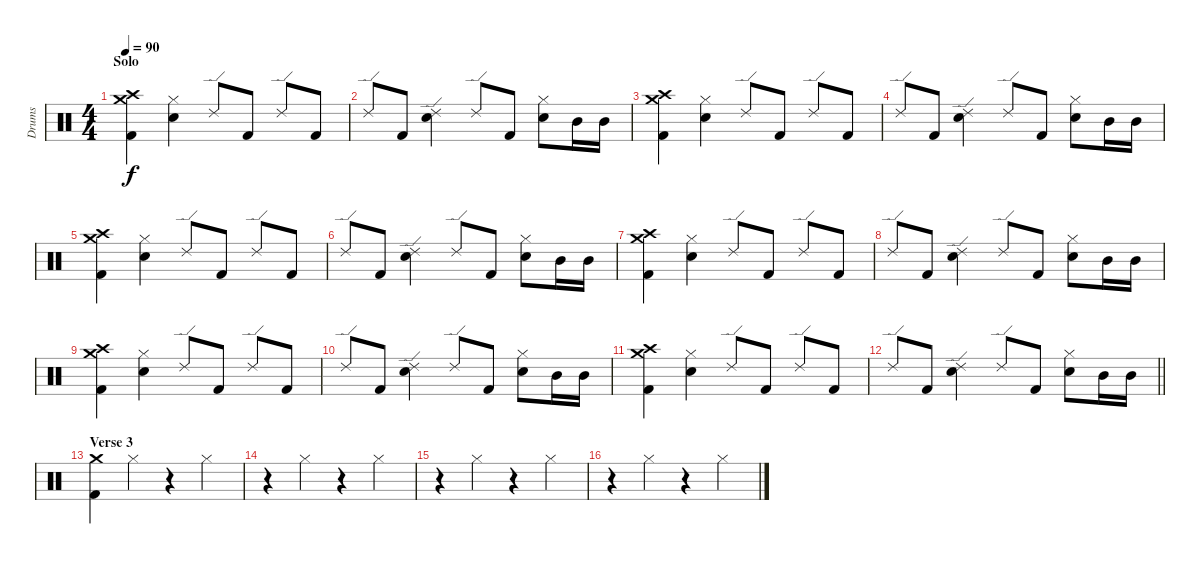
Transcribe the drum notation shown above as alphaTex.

\track ("Drums" "Drums") {instrument percussion}
\staff {score}
\articulation defaults
\ts (4 4)
\section ("" "Solo")
\tempo 90
\clef neutral
\ks c
("Crash high (hit)" "Crash medium (hit)" "Kick (hit) 2").4{dy f} ("Hi-Hat (closed)" "Snare (hit) 2").4 "Ride (edge) 2".8 "Kick (hit) 2".8 "Ride (edge) 2".8 "Kick (hit) 2".8 |
"Ride (edge) 2".8 "Kick (hit) 2".8 ("Ride (edge) 2" "Snare (hit) 2").4 "Ride (edge) 2".8 "Kick (hit) 2".8 ("Hi-Hat (closed)" "Snare (hit) 2").8 "Mid Tom (hit)".16 "Mid Tom (hit)".16 |
("Crash high (hit)" "Crash medium (hit)" "Kick (hit) 2").4 ("Hi-Hat (closed)" "Snare (hit) 2").4 "Ride (edge) 2".8 "Kick (hit) 2".8 "Ride (edge) 2".8 "Kick (hit) 2".8 |
"Ride (edge) 2".8 "Kick (hit) 2".8 ("Ride (edge) 2" "Snare (hit) 2").4 "Ride (edge) 2".8 "Kick (hit) 2".8 ("Hi-Hat (closed)" "Snare (hit) 2").8 "Mid Tom (hit)".16 "Mid Tom (hit)".16 |
("Crash high (hit)" "Crash medium (hit)" "Kick (hit) 2").4 ("Hi-Hat (closed)" "Snare (hit) 2").4 "Ride (edge) 2".8 "Kick (hit) 2".8 "Ride (edge) 2".8 "Kick (hit) 2".8 |
"Ride (edge) 2".8 "Kick (hit) 2".8 ("Ride (edge) 2" "Snare (hit) 2").4 "Ride (edge) 2".8 "Kick (hit) 2".8 ("Hi-Hat (closed)" "Snare (hit) 2").8 "Mid Tom (hit)".16 "Mid Tom (hit)".16 |
("Crash high (hit)" "Crash medium (hit)" "Kick (hit) 2").4 ("Hi-Hat (closed)" "Snare (hit) 2").4 "Ride (edge) 2".8 "Kick (hit) 2".8 "Ride (edge) 2".8 "Kick (hit) 2".8 |
"Ride (edge) 2".8 "Kick (hit) 2".8 ("Ride (edge) 2" "Snare (hit) 2").4 "Ride (edge) 2".8 "Kick (hit) 2".8 ("Hi-Hat (closed)" "Snare (hit) 2").8 "Mid Tom (hit)".16 "Mid Tom (hit)".16 |
("Crash high (hit)" "Crash medium (hit)" "Kick (hit) 2").4 ("Hi-Hat (closed)" "Snare (hit) 2").4 "Ride (edge) 2".8 "Kick (hit) 2".8 "Ride (edge) 2".8 "Kick (hit) 2".8 |
"Ride (edge) 2".8 "Kick (hit) 2".8 ("Ride (edge) 2" "Snare (hit) 2").4 "Ride (edge) 2".8 "Kick (hit) 2".8 ("Hi-Hat (closed)" "Snare (hit) 2").8 "Mid Tom (hit)".16 "Mid Tom (hit)".16 |
("Crash high (hit)" "Crash medium (hit)" "Kick (hit) 2").4 ("Hi-Hat (closed)" "Snare (hit) 2").4 "Ride (edge) 2".8 "Kick (hit) 2".8 "Ride (edge) 2".8 "Kick (hit) 2".8 |
\barLineRight lightlight "Ride (edge) 2".8 "Kick (hit) 2".8
("Ride (edge) 2" "Snare (hit) 2").4 "Ride (edge) 2".8 "Kick (hit) 2".8 ("Hi-Hat (closed)" "Snare (hit) 2").8 "Mid Tom (hit)".16 "Mid Tom (hit)".16 |
\section ("" "Verse 3")
("Crash medium (hit)" "Kick (hit) 2").4 "Hi-Hat (closed)".4 r.4 "Hi-Hat (closed)".4 |
r.4 "Hi-Hat (closed)".4 r.4 "Hi-Hat (closed)".4 |
r.4 "Hi-Hat (closed)".4 r.4 "Hi-Hat (closed)".4 |
r.4 "Hi-Hat (closed)".4 r.4 "Hi-Hat (closed)".4
